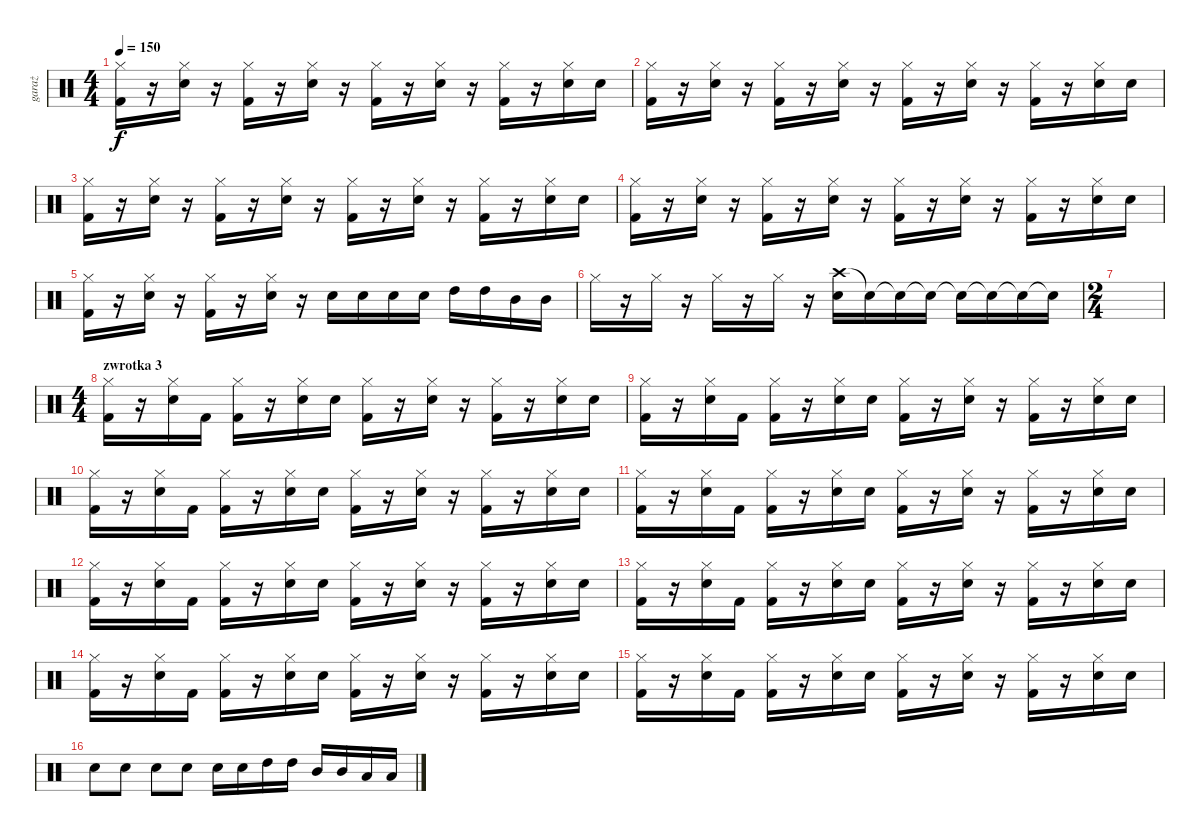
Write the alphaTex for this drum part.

\track ("garaż" "garaż") {instrument percussion}
\staff {score}
\articulation defaults
\ts (4 4)
\tempo 150
\clef neutral
\ks c
("Kick (hit) 2" "Hi-Hat (closed)").16{dy f} r.16 ("Snare (hit) 2" "Hi-Hat (closed)").16 r.16 ("Kick (hit) 2" "Hi-Hat (closed)").16 r.16 ("Snare (hit) 2" "Hi-Hat (closed)").16 r.16 ("Kick (hit) 2" "Hi-Hat (closed)").16 r.16 ("Snare (hit) 2" "Hi-Hat (closed)").16 r.16 ("Kick (hit) 2" "Hi-Hat (closed)").16 r.16 ("Snare (hit) 2" "Hi-Hat (closed)").16 "Snare (hit) 2".16 |
("Kick (hit) 2" "Hi-Hat (closed)").16 r.16 ("Snare (hit) 2" "Hi-Hat (closed)").16 r.16 ("Kick (hit) 2" "Hi-Hat (closed)").16 r.16 ("Snare (hit) 2" "Hi-Hat (closed)").16 r.16 ("Kick (hit) 2" "Hi-Hat (closed)").16 r.16 ("Snare (hit) 2" "Hi-Hat (closed)").16 r.16 ("Kick (hit) 2" "Hi-Hat (closed)").16 r.16 ("Snare (hit) 2" "Hi-Hat (closed)").16 "Snare (hit) 2".16 |
("Kick (hit) 2" "Hi-Hat (closed)").16 r.16 ("Snare (hit) 2" "Hi-Hat (closed)").16 r.16 ("Kick (hit) 2" "Hi-Hat (closed)").16 r.16 ("Snare (hit) 2" "Hi-Hat (closed)").16 r.16 ("Kick (hit) 2" "Hi-Hat (closed)").16 r.16 ("Snare (hit) 2" "Hi-Hat (closed)").16 r.16 ("Kick (hit) 2" "Hi-Hat (closed)").16 r.16 ("Snare (hit) 2" "Hi-Hat (closed)").16 "Snare (hit) 2".16 |
("Kick (hit) 2" "Hi-Hat (closed)").16 r.16 ("Snare (hit) 2" "Hi-Hat (closed)").16 r.16 ("Kick (hit) 2" "Hi-Hat (closed)").16 r.16 ("Snare (hit) 2" "Hi-Hat (closed)").16 r.16 ("Kick (hit) 2" "Hi-Hat (closed)").16 r.16 ("Snare (hit) 2" "Hi-Hat (closed)").16 r.16 ("Kick (hit) 2" "Hi-Hat (closed)").16 r.16 ("Snare (hit) 2" "Hi-Hat (closed)").16 "Snare (hit) 2".16 |
("Kick (hit) 2" "Hi-Hat (closed)").16 r.16 ("Snare (hit) 2" "Hi-Hat (closed)").16 r.16 ("Kick (hit) 2" "Hi-Hat (closed)").16 r.16 ("Snare (hit) 2" "Hi-Hat (closed)").16 r.16 "Snare (hit) 2".16 "Snare (hit) 2".16 "Snare (hit) 2".16 "Snare (hit) 2".16 "High Tom (hit)".16 "High Tom (hit)".16 "Mid Tom (hit)".16 "Mid Tom (hit)".16 |
"Hi-Hat (closed)".16 r.16 "Hi-Hat (closed)".16 r.16 "Hi-Hat (closed)".16 r.16 "Hi-Hat (closed)".16 r.16 ("Crash high (hit)" "Snare (hit) 2").16 "Snare (hit)"{t}.16 "Snare (hit)"{t}.16 "Snare (hit)"{t}.16 "Snare (hit)"{t}.16 "Snare (hit)"{t}.16 "Snare (hit)"{t}.16 "Snare (hit)"{t}.16 |
\ts (2 4)
|
\ts (4 4)
\section ("" "zwrotka 3")
("Kick (hit) 2" "Hi-Hat (closed)").16 r.16 ("Snare (hit) 2" "Hi-Hat (closed)").16 "Kick (hit) 2".16 ("Kick (hit) 2" "Hi-Hat (closed)").16 r.16 ("Snare (hit) 2" "Hi-Hat (closed)").16 "Snare (hit) 2".16 ("Kick (hit) 2" "Hi-Hat (closed)").16 r.16 ("Snare (hit) 2" "Hi-Hat (closed)").16 r.16 ("Kick (hit) 2" "Hi-Hat (closed)").16 r.16 ("Snare (hit) 2" "Hi-Hat (closed)").16 "Snare (hit) 2".16 |
("Kick (hit) 2" "Hi-Hat (closed)").16 r.16 ("Snare (hit) 2" "Hi-Hat (closed)").16 "Kick (hit) 2".16 ("Kick (hit) 2" "Hi-Hat (closed)").16 r.16 ("Snare (hit) 2" "Hi-Hat (closed)").16 "Snare (hit) 2".16 ("Kick (hit) 2" "Hi-Hat (closed)").16 r.16 ("Snare (hit) 2" "Hi-Hat (closed)").16 r.16 ("Kick (hit) 2" "Hi-Hat (closed)").16 r.16 ("Snare (hit) 2" "Hi-Hat (closed)").16 "Snare (hit) 2".16 |
("Kick (hit) 2" "Hi-Hat (closed)").16 r.16 ("Snare (hit) 2" "Hi-Hat (closed)").16 "Kick (hit) 2".16 ("Kick (hit) 2" "Hi-Hat (closed)").16 r.16 ("Snare (hit) 2" "Hi-Hat (closed)").16 "Snare (hit) 2".16 ("Kick (hit) 2" "Hi-Hat (closed)").16 r.16 ("Snare (hit) 2" "Hi-Hat (closed)").16 r.16 ("Kick (hit) 2" "Hi-Hat (closed)").16 r.16 ("Snare (hit) 2" "Hi-Hat (closed)").16 "Snare (hit) 2".16 |
("Kick (hit) 2" "Hi-Hat (closed)").16 r.16 ("Snare (hit) 2" "Hi-Hat (closed)").16 "Kick (hit) 2".16 ("Kick (hit) 2" "Hi-Hat (closed)").16 r.16 ("Snare (hit) 2" "Hi-Hat (closed)").16 "Snare (hit) 2".16 ("Kick (hit) 2" "Hi-Hat (closed)").16 r.16 ("Snare (hit) 2" "Hi-Hat (closed)").16 r.16 ("Kick (hit) 2" "Hi-Hat (closed)").16 r.16 ("Snare (hit) 2" "Hi-Hat (closed)").16 "Snare (hit) 2".16 |
("Kick (hit) 2" "Hi-Hat (closed)").16 r.16 ("Snare (hit) 2" "Hi-Hat (closed)").16 "Kick (hit) 2".16 ("Kick (hit) 2" "Hi-Hat (closed)").16 r.16 ("Snare (hit) 2" "Hi-Hat (closed)").16 "Snare (hit) 2".16 ("Kick (hit) 2" "Hi-Hat (closed)").16 r.16 ("Snare (hit) 2" "Hi-Hat (closed)").16 r.16 ("Kick (hit) 2" "Hi-Hat (closed)").16 r.16 ("Snare (hit) 2" "Hi-Hat (closed)").16 "Snare (hit) 2".16 |
("Kick (hit) 2" "Hi-Hat (closed)").16 r.16 ("Snare (hit) 2" "Hi-Hat (closed)").16 "Kick (hit) 2".16 ("Kick (hit) 2" "Hi-Hat (closed)").16 r.16 ("Snare (hit) 2" "Hi-Hat (closed)").16 "Snare (hit) 2".16 ("Kick (hit) 2" "Hi-Hat (closed)").16 r.16 ("Snare (hit) 2" "Hi-Hat (closed)").16 r.16 ("Kick (hit) 2" "Hi-Hat (closed)").16 r.16 ("Snare (hit) 2" "Hi-Hat (closed)").16 "Snare (hit) 2".16 |
("Kick (hit) 2" "Hi-Hat (closed)").16 r.16 ("Snare (hit) 2" "Hi-Hat (closed)").16 "Kick (hit) 2".16 ("Kick (hit) 2" "Hi-Hat (closed)").16 r.16 ("Snare (hit) 2" "Hi-Hat (closed)").16 "Snare (hit) 2".16 ("Kick (hit) 2" "Hi-Hat (closed)").16 r.16 ("Snare (hit) 2" "Hi-Hat (closed)").16 r.16 ("Kick (hit) 2" "Hi-Hat (closed)").16 r.16 ("Snare (hit) 2" "Hi-Hat (closed)").16 "Snare (hit) 2".16 |
("Kick (hit) 2" "Hi-Hat (closed)").16 r.16 ("Snare (hit) 2" "Hi-Hat (closed)").16 "Kick (hit) 2".16 ("Kick (hit) 2" "Hi-Hat (closed)").16 r.16 ("Snare (hit) 2" "Hi-Hat (closed)").16 "Snare (hit) 2".16 ("Kick (hit) 2" "Hi-Hat (closed)").16 r.16 ("Snare (hit) 2" "Hi-Hat (closed)").16 r.16 ("Kick (hit) 2" "Hi-Hat (closed)").16 r.16 ("Snare (hit) 2" "Hi-Hat (closed)").16 "Snare (hit) 2".16 |
"Snare (hit) 2".8 "Snare (hit) 2".8 "Snare (hit) 2".8 "Snare (hit) 2".8 "Snare (hit) 2".16 "Snare (hit) 2".16 "High Tom (hit)".16 "High Tom (hit)".16 "Mid Tom (hit)".16 "Mid Tom (hit)".16 "Low Tom (hit)".16 "Low Tom (hit)".16
